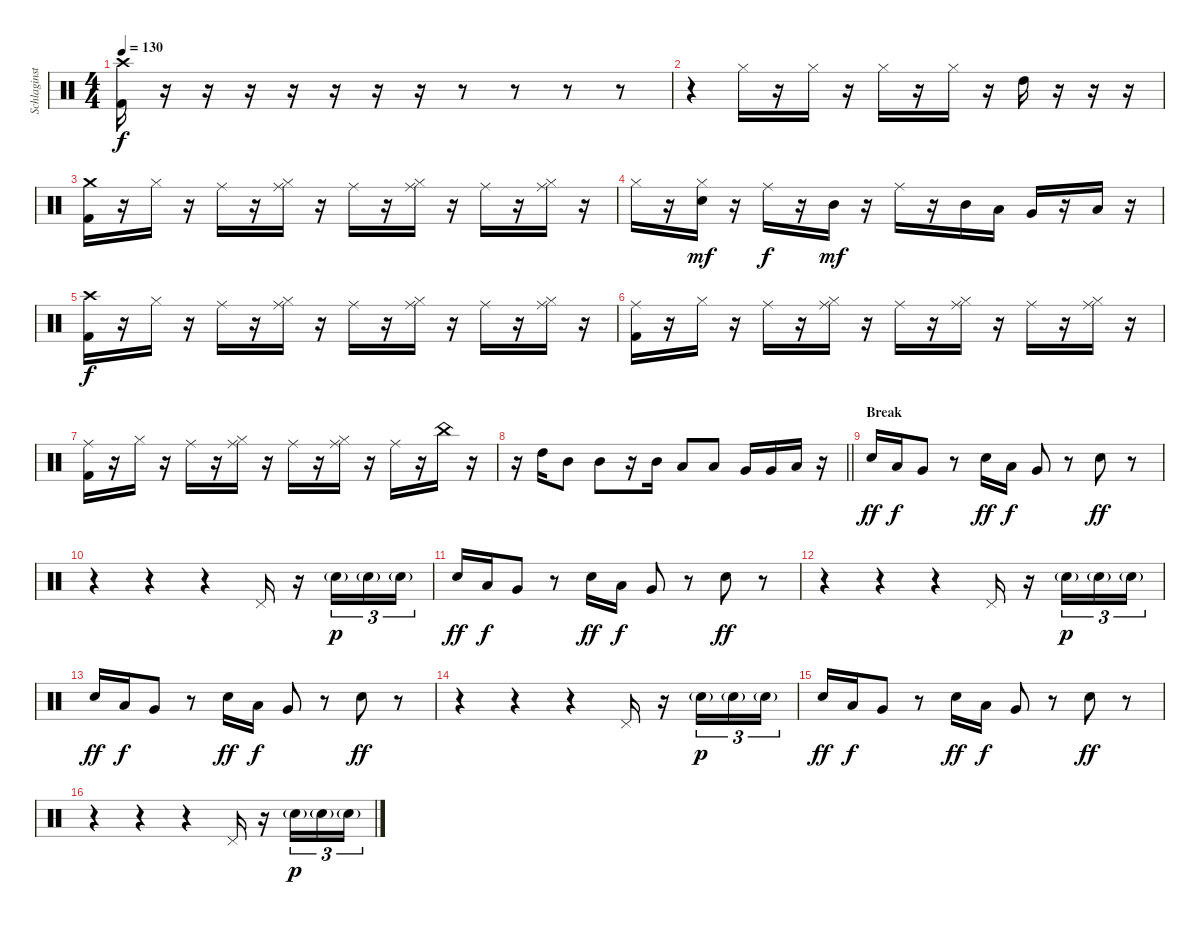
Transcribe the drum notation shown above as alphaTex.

\track ("Schlaginstrumente - Auswahl" "Schlaginst") {instrument percussion}
\staff {score}
\articulation defaults
\ts (4 4)
\tempo 130
\clef neutral
\ks c
("Crash high (hit)" "Kick (hit) 2").16{dy f} r.16 r.16 r.16 r.16 r.16 r.16 r.16 r.8 r.8 r.8 r.8 |
r.4 "Hi-Hat (closed)".16 r.16 "Hi-Hat (closed)".16 r.16 "Hi-Hat (closed)".16 r.16 "Hi-Hat (closed)".16 r.16 "High Tom (hit)".16 r.16 r.16 r.16 |
("Crash medium (hit)" "Kick (hit) 2").16 r.16 "Hi-Hat (closed)".16 r.16 "Ride (middle)".16 r.16 ("Hi-Hat (closed)" "Ride (middle)").16 r.16 "Ride (middle)".16 r.16 ("Hi-Hat (closed)" "Ride (middle)").16 r.16 "Ride (middle)".16 r.16 ("Ride (middle)" "Hi-Hat (closed)").16 r.16 |
"Hi-Hat (closed)".16 r.16 ("Hi-Hat (closed)" "Snare (hit) 2").16{dy mf} r.16 "Ride (middle)".16{dy f} r.16 "Mid Tom (hit)".16{dy mf} r.16 "Ride (middle)".16 r.16 "Mid Tom (hit)".16 "Low Tom (hit)".16 "Very Low Tom (hit)".16 r.16 "Low Floor Tom (hit)".16 r.16 |
("Crash high (hit)" "Kick (hit) 2").16{dy f} r.16 "Hi-Hat (closed)".16 r.16 "Ride (middle)".16 r.16 ("Hi-Hat (closed)" "Ride (middle)").16 r.16 "Ride (middle)".16 r.16 ("Hi-Hat (closed)" "Ride (middle)").16 r.16 "Ride (middle)".16 r.16 ("Ride (middle)" "Hi-Hat (closed)").16 r.16 |
("Ride (middle)" "Kick (hit) 2").16 r.16 "Hi-Hat (closed)".16 r.16 "Ride (middle)".16 r.16 ("Hi-Hat (closed)" "Ride (middle)").16 r.16 "Ride (middle)".16 r.16 ("Hi-Hat (closed)" "Ride (middle)").16 r.16 "Ride (middle)".16 r.16 ("Ride (middle)" "Hi-Hat (closed)").16 r.16 |
("Ride (middle)" "Kick (hit) 2").16 r.16 "Hi-Hat (closed)".16 r.16 "Ride (middle)".16 r.16 ("Hi-Hat (closed)" "Ride (middle)").16 r.16 "Ride (middle)".16 r.16 ("Hi-Hat (closed)" "Ride (middle)").16 r.16 "Ride (middle)".16 r.16 "China (hit)".16 r.16 |
\barLineRight lightlight
r.16 "High Tom (hit)".16 "Mid Tom (hit)".8 "Mid Tom (hit)".8 r.16 "Mid Tom (hit)".16 "Low Tom (hit)".8 "Low Tom (hit)".8 "Very Low Tom (hit)".16 "Very Low Tom (hit)".16 "Low Floor Tom (hit)".16 r.16 |
\section ("" "Break")
"Electric Snare (hit)".16{dy ff} "Low Tom (hit)".16{dy f} "Very Low Tom (hit)".8 r.8 "Electric Snare (hit)".16{dy ff} "Low Tom (hit)".16{dy f} "Very Low Tom (hit)".8 r.8 "Electric Snare (hit)".8{dy ff} r.8 |
r.4 r.4 r.4 "Pedal Hi-Hat (hit)".16 r.16 "Electric Snare (hit)"{g}.16{tu (3 2) dy p} "Electric Snare (hit)"{g}.16{tu (3 2)} "Electric Snare (hit)"{g}.16{tu (3 2)} |
"Electric Snare (hit)".16{dy ff} "Low Tom (hit)".16{dy f} "Very Low Tom (hit)".8 r.8 "Electric Snare (hit)".16{dy ff} "Low Tom (hit)".16{dy f} "Very Low Tom (hit)".8 r.8 "Electric Snare (hit)".8{dy ff} r.8 |
r.4 r.4 r.4 "Pedal Hi-Hat (hit)".16 r.16 "Electric Snare (hit)"{g}.16{tu (3 2) dy p} "Electric Snare (hit)"{g}.16{tu (3 2)} "Electric Snare (hit)"{g}.16{tu (3 2)} |
"Electric Snare (hit)".16{dy ff} "Low Tom (hit)".16{dy f} "Very Low Tom (hit)".8 r.8 "Electric Snare (hit)".16{dy ff} "Low Tom (hit)".16{dy f} "Very Low Tom (hit)".8 r.8 "Electric Snare (hit)".8{dy ff} r.8 |
r.4 r.4 r.4 "Pedal Hi-Hat (hit)".16 r.16 "Electric Snare (hit)"{g}.16{tu (3 2) dy p} "Electric Snare (hit)"{g}.16{tu (3 2)} "Electric Snare (hit)"{g}.16{tu (3 2)} |
"Electric Snare (hit)".16{dy ff} "Low Tom (hit)".16{dy f} "Very Low Tom (hit)".8 r.8 "Electric Snare (hit)".16{dy ff} "Low Tom (hit)".16{dy f} "Very Low Tom (hit)".8 r.8 "Electric Snare (hit)".8{dy ff} r.8 |
r.4 r.4 r.4 "Pedal Hi-Hat (hit)".16 r.16 "Electric Snare (hit)"{g}.16{tu (3 2) dy p} "Electric Snare (hit)"{g}.16{tu (3 2)} "Electric Snare (hit)"{g}.16{tu (3 2)}
